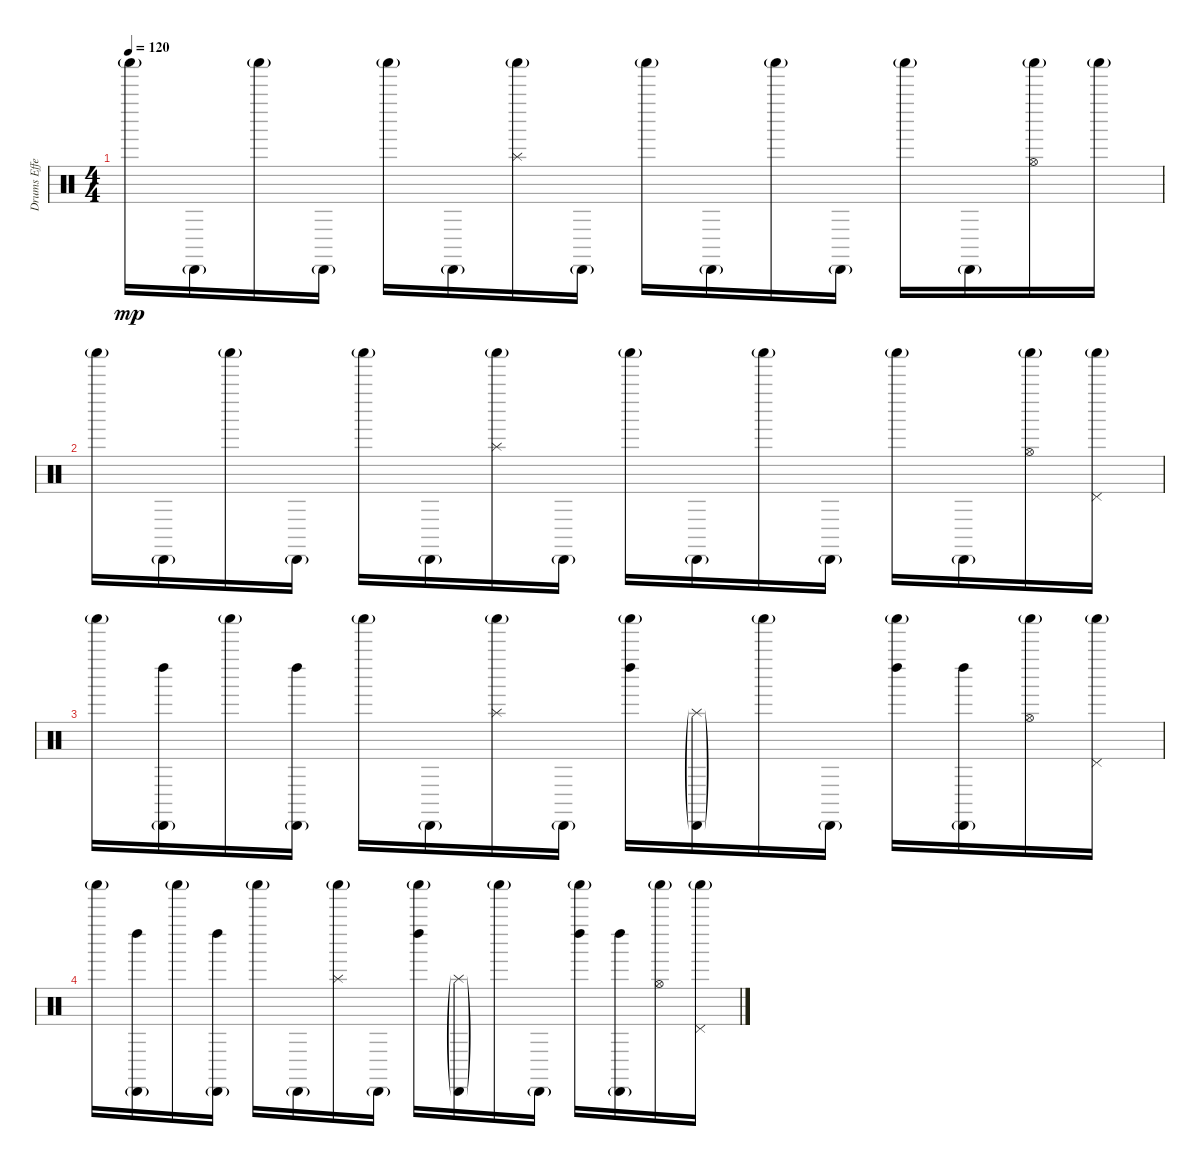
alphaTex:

\track ("Drums Effects" "Drums Effe") {instrument percussion}
\staff {score}
\articulation defaults
\ts (4 4)
\tempo 120
\clef neutral
\ks c "Shaker (hit)"{g}.16{dy mp} "Cabasa (hit)"{g}.16 "Shaker (hit)"{g}.16 "Cabasa (hit)"{g}.16 "Shaker (hit)"{g}.16 "Cabasa (hit)"{g}.16
("Shaker (hit)"{g} "Splash (hit)").16 "Cabasa (hit)"{g}.16 "Shaker (hit)"{g}.16 "Cabasa (hit)"{g}.16 "Shaker (hit)"{g}.16 "Cabasa (hit)"{g}.16 "Shaker (hit)"{g}.16 "Cabasa (hit)"{g}.16 ("Shaker (hit)"{g} "Hi-Hat (open)").16 "Shaker (hit)"{g}.16 |
"Shaker (hit)"{g}.16 "Cabasa (hit)"{g}.16 "Shaker (hit)"{g}.16 "Cabasa (hit)"{g}.16 "Shaker (hit)"{g}.16 "Cabasa (hit)"{g}.16 ("Shaker (hit)"{g} "Splash (hit)").16 "Cabasa (hit)"{g}.16 "Shaker (hit)"{g}.16 "Cabasa (hit)"{g}.16 "Shaker (hit)"{g}.16 "Cabasa (hit)"{g}.16 "Shaker (hit)"{g}.16 "Cabasa (hit)"{g}.16 ("Shaker (hit)"{g} "Hi-Hat (open)").16 ("Shaker (hit)"{g} "Pedal Hi-Hat (hit)").16 |
"Shaker (hit)"{g}.16 ("Cabasa (hit)"{g} "Left Maraca (hit)").16 "Shaker (hit)"{g}.16 ("Cabasa (hit)"{g} "Left Maraca (hit)").16 "Shaker (hit)"{g}.16 "Cabasa (hit)"{g}.16 ("Shaker (hit)"{g} "Splash (hit)").16 "Cabasa (hit)"{g}.16 ("Shaker (hit)"{g} "Left Maraca (hit)").16 ("Cabasa (hit)"{g} "Splash (hit)"{g}).16 "Shaker (hit)"{g}.16 "Cabasa (hit)"{g}.16 ("Shaker (hit)"{g} "Left Maraca (hit)").16 ("Cabasa (hit)"{g} "Left Maraca (hit)").16 ("Shaker (hit)"{g} "Hi-Hat (open)").16 ("Shaker (hit)"{g} "Pedal Hi-Hat (hit)").16 |
"Shaker (hit)"{g}.16 ("Cabasa (hit)"{g} "Left Maraca (hit)").16 "Shaker (hit)"{g}.16 ("Cabasa (hit)"{g} "Left Maraca (hit)").16 "Shaker (hit)"{g}.16 "Cabasa (hit)"{g}.16 ("Shaker (hit)"{g} "Splash (hit)").16 "Cabasa (hit)"{g}.16 ("Shaker (hit)"{g} "Left Maraca (hit)").16 ("Cabasa (hit)"{g} "Splash (hit)"{g}).16 "Shaker (hit)"{g}.16 "Cabasa (hit)"{g}.16 ("Shaker (hit)"{g} "Left Maraca (hit)").16 ("Cabasa (hit)"{g} "Left Maraca (hit)").16 ("Shaker (hit)"{g} "Hi-Hat (open)").16 ("Shaker (hit)"{g} "Pedal Hi-Hat (hit)").16
